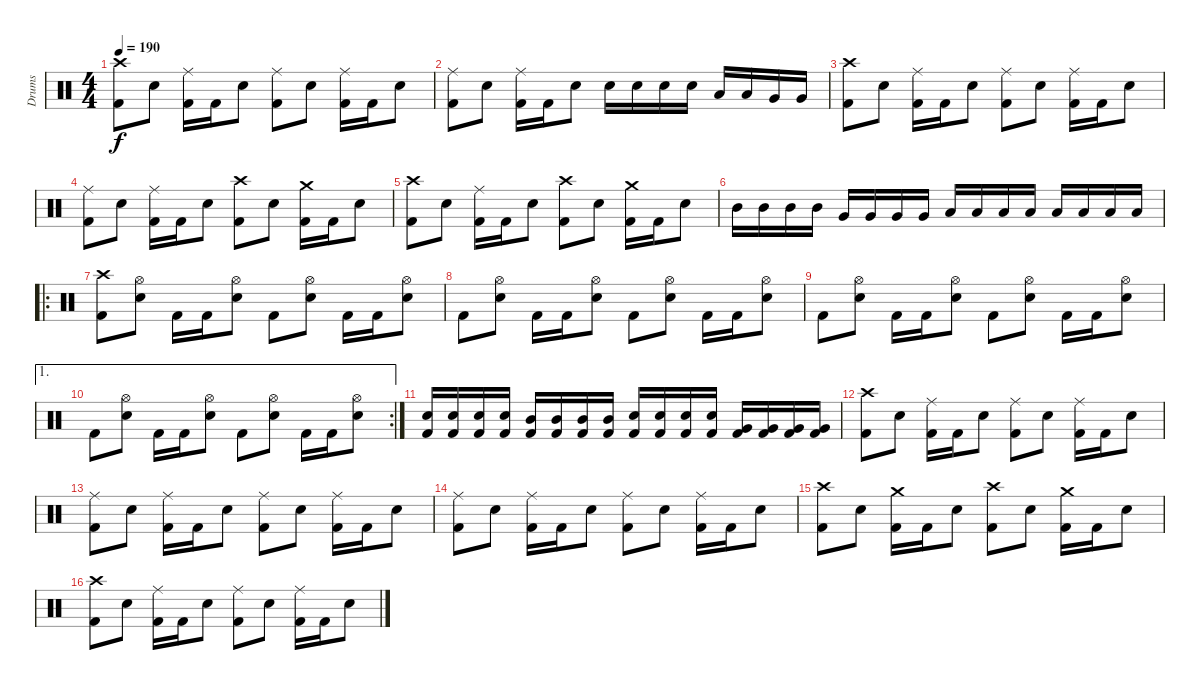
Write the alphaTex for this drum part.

\track ("Drums" "Drums") {instrument percussion}
\staff {score}
\articulation defaults
\ts (4 4)
\tempo 190
\clef neutral
\ks c
("Crash high (hit)" "Kick (hit) 2").8{dy f} "Electric Snare (hit)".8 ("Ride (middle)" "Kick (hit) 2").16 "Kick (hit) 2".16 "Electric Snare (hit)".8 ("Ride (middle)" "Kick (hit) 2").8 "Electric Snare (hit)".8 ("Ride (middle)" "Kick (hit) 2").16 "Kick (hit) 2".16 "Electric Snare (hit)".8 |
("Ride (middle)" "Kick (hit) 2").8 "Electric Snare (hit)".8 ("Ride (middle)" "Kick (hit) 2").16 "Kick (hit) 2".16 "Electric Snare (hit)".8 "Electric Snare (hit)".16 "Electric Snare (hit)".16 "Electric Snare (hit)".16 "Electric Snare (hit)".16 "Low Tom (hit)".16 "Low Tom (hit)".16 "Very Low Tom (hit)".16 "Very Low Tom (hit)".16 |
("Crash high (hit)" "Kick (hit) 2").8 "Electric Snare (hit)".8 ("Ride (middle)" "Kick (hit) 2").16 "Kick (hit) 2".16 "Electric Snare (hit)".8 ("Ride (middle)" "Kick (hit) 2").8 "Electric Snare (hit)".8 ("Ride (middle)" "Kick (hit) 2").16 "Kick (hit) 2".16 "Electric Snare (hit)".8 |
("Ride (middle)" "Kick (hit) 2").8 "Electric Snare (hit)".8 ("Ride (middle)" "Kick (hit) 2").16 "Kick (hit) 2".16 "Electric Snare (hit)".8 ("Crash high (hit)" "Kick (hit) 2").8 "Electric Snare (hit)".8 ("Crash medium (hit)" "Kick (hit) 2").16 "Kick (hit) 2".16 "Electric Snare (hit)".8 |
("Crash high (hit)" "Kick (hit) 2").8 "Electric Snare (hit)".8 ("Ride (middle)" "Kick (hit) 2").16 "Kick (hit) 2".16 "Electric Snare (hit)".8 ("Crash high (hit)" "Kick (hit) 2").8 "Electric Snare (hit)".8 ("Crash medium (hit)" "Kick (hit) 2").16 "Kick (hit) 2".16 "Electric Snare (hit)".8 |
"Mid Tom (hit)".16 "Mid Tom (hit)".16 "Mid Tom (hit)".16 "Mid Tom (hit)".16 "Very Low Tom (hit)".16 "Very Low Tom (hit)".16 "Very Low Tom (hit)".16 "Very Low Tom (hit)".16 "Low Tom (hit)".16 "Low Tom (hit)".16 "Low Tom (hit)".16 "Low Tom (hit)".16 "Low Floor Tom (hit)".16 "Low Floor Tom (hit)".16 "Low Floor Tom (hit)".16 "Low Floor Tom (hit)".16 |
\ro
("Crash high (hit)" "Kick (hit) 2").8 ("Hi-Hat (open)" "Electric Snare (hit)").8 "Kick (hit) 2".16 "Kick (hit) 2".16 ("Hi-Hat (open)" "Electric Snare (hit)").8 "Kick (hit) 2".8 ("Hi-Hat (open)" "Electric Snare (hit)").8 "Kick (hit) 2".16 "Kick (hit) 2".16 ("Hi-Hat (open)" "Electric Snare (hit)").8 |
"Kick (hit) 2".8 ("Hi-Hat (open)" "Electric Snare (hit)").8 "Kick (hit) 2".16 "Kick (hit) 2".16 ("Hi-Hat (open)" "Electric Snare (hit)").8 "Kick (hit) 2".8 ("Hi-Hat (open)" "Electric Snare (hit)").8 "Kick (hit) 2".16 "Kick (hit) 2".16 ("Hi-Hat (open)" "Electric Snare (hit)").8 |
"Kick (hit) 2".8 ("Hi-Hat (open)" "Electric Snare (hit)").8 "Kick (hit) 2".16 "Kick (hit) 2".16 ("Hi-Hat (open)" "Electric Snare (hit)").8 "Kick (hit) 2".8 ("Hi-Hat (open)" "Electric Snare (hit)").8 "Kick (hit) 2".16 "Kick (hit) 2".16 ("Hi-Hat (open)" "Electric Snare (hit)").8 |
\ae 1
\rc 2 "Kick (hit) 2".8
("Hi-Hat (open)" "Electric Snare (hit)").8 "Kick (hit) 2".16 "Kick (hit) 2".16 ("Hi-Hat (open)" "Electric Snare (hit)").8 "Kick (hit) 2".8 ("Hi-Hat (open)" "Electric Snare (hit)").8 "Kick (hit) 2".16 "Kick (hit) 2".16 ("Hi-Hat (open)" "Electric Snare (hit)").8 |
("Electric Snare (hit)" "Kick (hit) 2").16 ("Electric Snare (hit)" "Kick (hit) 2").16 ("Electric Snare (hit)" "Kick (hit) 2").16 ("Electric Snare (hit)" "Kick (hit) 2").16 ("Mid Tom (hit)" "Kick (hit) 2").16 ("Mid Tom (hit)" "Kick (hit) 2").16 ("Mid Tom (hit)" "Kick (hit) 2").16 ("Mid Tom (hit)" "Kick (hit) 2").16 ("Electric Snare (hit)" "Kick (hit) 2").16 ("Electric Snare (hit)" "Kick (hit) 2").16 ("Electric Snare (hit)" "Kick (hit) 2").16 ("Electric Snare (hit)" "Kick (hit) 2").16 ("Very Low Tom (hit)" "Kick (hit) 2").16 ("Very Low Tom (hit)" "Kick (hit) 2").16 ("Very Low Tom (hit)" "Kick (hit) 2").16 ("Very Low Tom (hit)" "Kick (hit) 2").16 |
("Crash high (hit)" "Kick (hit) 2").8 "Electric Snare (hit)".8 ("Ride (middle)" "Kick (hit) 2").16 "Kick (hit) 2".16 "Electric Snare (hit)".8 ("Ride (middle)" "Kick (hit) 2").8 "Electric Snare (hit)".8 ("Ride (middle)" "Kick (hit) 2").16 "Kick (hit) 2".16 "Electric Snare (hit)".8 |
("Ride (middle)" "Kick (hit) 2").8 "Electric Snare (hit)".8 ("Ride (middle)" "Kick (hit) 2").16 "Kick (hit) 2".16 "Electric Snare (hit)".8 ("Ride (middle)" "Kick (hit) 2").8 "Electric Snare (hit)".8 ("Ride (middle)" "Kick (hit) 2").16 "Kick (hit) 2".16 "Electric Snare (hit)".8 |
("Ride (middle)" "Kick (hit) 2").8 "Electric Snare (hit)".8 ("Ride (middle)" "Kick (hit) 2").16 "Kick (hit) 2".16 "Electric Snare (hit)".8 ("Ride (middle)" "Kick (hit) 2").8 "Electric Snare (hit)".8 ("Ride (middle)" "Kick (hit) 2").16 "Kick (hit) 2".16 "Electric Snare (hit)".8 |
("Crash high (hit)" "Kick (hit) 2").8 "Electric Snare (hit)".8 ("Crash medium (hit)" "Kick (hit) 2").16 "Kick (hit) 2".16 "Electric Snare (hit)".8 ("Crash high (hit)" "Kick (hit) 2").8 "Electric Snare (hit)".8 ("Crash medium (hit)" "Kick (hit) 2").16 "Kick (hit) 2".16 "Electric Snare (hit)".8 |
("Crash high (hit)" "Kick (hit) 2").8 "Electric Snare (hit)".8 ("Ride (middle)" "Kick (hit) 2").16 "Kick (hit) 2".16 "Electric Snare (hit)".8 ("Ride (middle)" "Kick (hit) 2").8 "Electric Snare (hit)".8 ("Ride (middle)" "Kick (hit) 2").16 "Kick (hit) 2".16 "Electric Snare (hit)".8
